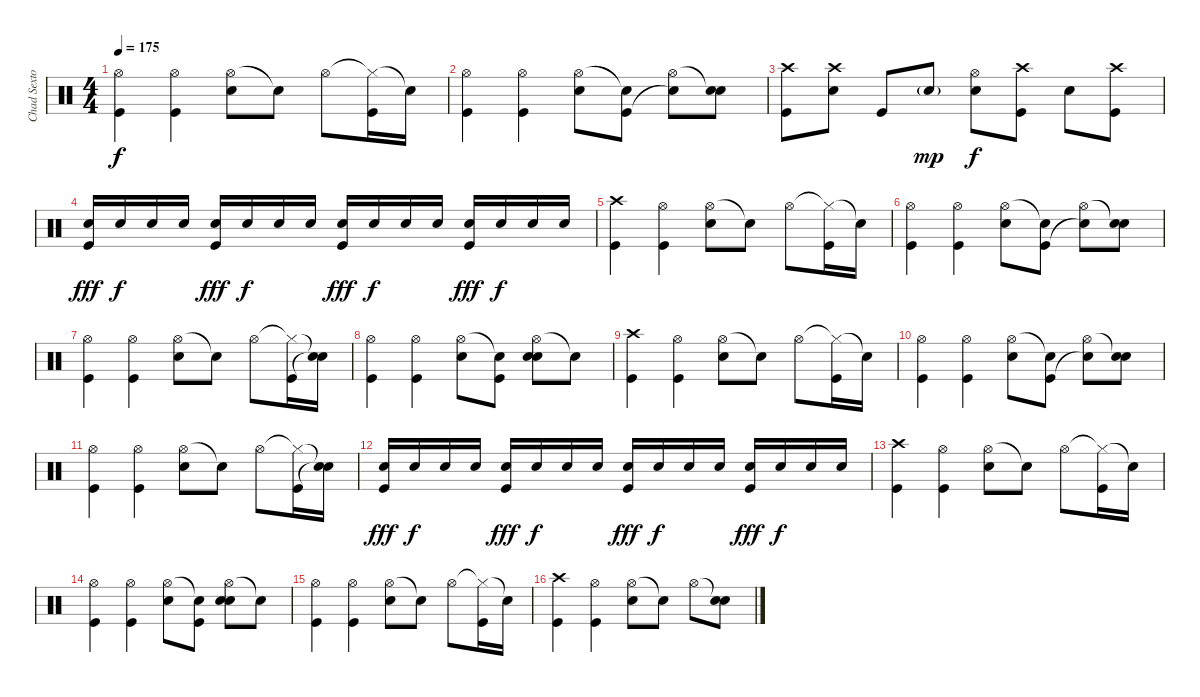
\track ("Chad Sexton" "Chad Sexto") {instrument percussion}
\staff {score}
\articulation defaults
\ts (4 4)
\tempo 175
\clef neutral
\ks c
("Hi-Hat (open)" "Kick (hit)").4{dy f} ("Hi-Hat (open)" "Kick (hit)").4 ("Hi-Hat (open)" "Snare (hit) 2").8 "Snare (hit)"{t}.8 "Hi-Hat (open)".8 ("Hi-Hat (closed)"{t} "Kick (hit)").16 "Snare (hit)"{t}.16 |
("Hi-Hat (open)" "Kick (hit)").4 ("Hi-Hat (open)" "Kick (hit)").4 ("Hi-Hat (open)" "Snare (hit) 2").8 ("Snare (hit)"{t} "Kick (hit)").8 ("Hi-Hat (open)" "Snare (hit)"{t}).8 ("Snare (hit)"{t} "Snare (hit) 2").8 |
("Crash high (hit)" "Kick (hit)").8 ("Crash high (hit)" "Snare (hit) 2").8 "Kick (hit)".8 "Snare (hit) 2"{g}.8{dy mp} ("Hi-Hat (open)" "Snare (hit) 2").8{dy f} ("Crash high (hit)" "Kick (hit)").8 "Snare (hit) 2".8 ("Crash high (hit)" "Kick (hit)").8 |
("Snare (hit) 2" "Kick (hit)").16{dy fff} "Snare (hit) 2".16{dy f} "Snare (hit) 2".16 "Snare (hit) 2".16 ("Snare (hit) 2" "Kick (hit)").16{dy fff} "Snare (hit) 2".16{dy f} "Snare (hit) 2".16 "Snare (hit) 2".16 ("Snare (hit) 2" "Kick (hit)").16{dy fff} "Snare (hit) 2".16{dy f} "Snare (hit) 2".16 "Snare (hit) 2".16 ("Snare (hit) 2" "Kick (hit)").16{dy fff} "Snare (hit) 2".16{dy f} "Snare (hit) 2".16 "Snare (hit) 2".16 |
("Crash high (hit)" "Kick (hit)").4 ("Hi-Hat (open)" "Kick (hit)").4 ("Hi-Hat (open)" "Snare (hit) 2").8 "Snare (hit)"{t}.8 "Hi-Hat (open)".8 ("Hi-Hat (closed)"{t} "Kick (hit)").16 "Snare (hit)"{t}.16 |
("Hi-Hat (open)" "Kick (hit)").4 ("Hi-Hat (open)" "Kick (hit)").4 ("Hi-Hat (open)" "Snare (hit) 2").8 ("Snare (hit)"{t} "Kick (hit)").8 ("Hi-Hat (open)" "Snare (hit)"{t}).8 ("Snare (hit)"{t} "Snare (hit) 2").8 |
("Hi-Hat (open)" "Kick (hit)").4 ("Hi-Hat (open)" "Kick (hit)").4 ("Hi-Hat (open)" "Snare (hit) 2").8 "Snare (hit)"{t}.8 "Hi-Hat (open)".8 ("Hi-Hat (closed)"{t} "Kick (hit)").16 ("Snare (hit)"{t} "Snare (hit)"{t}).16 |
("Hi-Hat (open)" "Kick (hit)").4 ("Hi-Hat (open)" "Kick (hit)").4 ("Hi-Hat (open)" "Snare (hit) 2").8 ("Snare (hit)"{t} "Kick (hit)").8 ("Hi-Hat (open)" "Snare (hit) 2" "Snare (hit)").8 "Snare (hit)"{t}.8 |
("Crash high (hit)" "Kick (hit)").4 ("Hi-Hat (open)" "Kick (hit)").4 ("Hi-Hat (open)" "Snare (hit) 2").8 "Snare (hit)"{t}.8 "Hi-Hat (open)".8 ("Hi-Hat (closed)"{t} "Kick (hit)").16 "Snare (hit)"{t}.16 |
("Hi-Hat (open)" "Kick (hit)").4 ("Hi-Hat (open)" "Kick (hit)").4 ("Hi-Hat (open)" "Snare (hit) 2").8 ("Snare (hit)"{t} "Kick (hit)").8 ("Hi-Hat (open)" "Snare (hit)"{t}).8 ("Snare (hit)"{t} "Snare (hit) 2").8 |
("Hi-Hat (open)" "Kick (hit)").4 ("Hi-Hat (open)" "Kick (hit)").4 ("Hi-Hat (open)" "Snare (hit) 2").8 "Snare (hit)"{t}.8 "Hi-Hat (open)".8 ("Hi-Hat (closed)"{t} "Kick (hit)").16 ("Snare (hit)"{t} "Snare (hit)"{t}).16 |
("Snare (hit) 2" "Kick (hit)").16{dy fff} "Snare (hit) 2".16{dy f} "Snare (hit) 2".16 "Snare (hit) 2".16 ("Snare (hit) 2" "Kick (hit)").16{dy fff} "Snare (hit) 2".16{dy f} "Snare (hit) 2".16 "Snare (hit) 2".16 ("Snare (hit) 2" "Kick (hit)").16{dy fff} "Snare (hit) 2".16{dy f} "Snare (hit) 2".16 "Snare (hit) 2".16 ("Snare (hit) 2" "Kick (hit)").16{dy fff} "Snare (hit) 2".16{dy f} "Snare (hit) 2".16 "Snare (hit) 2".16 |
("Crash high (hit)" "Kick (hit)").4 ("Hi-Hat (open)" "Kick (hit)").4 ("Hi-Hat (open)" "Snare (hit) 2").8 "Snare (hit)"{t}.8 "Hi-Hat (open)".8 ("Hi-Hat (closed)"{t} "Kick (hit)").16 "Snare (hit)"{t}.16 |
("Hi-Hat (open)" "Kick (hit)").4 ("Hi-Hat (open)" "Kick (hit)").4 ("Hi-Hat (open)" "Snare (hit) 2").8 ("Snare (hit)"{t} "Kick (hit)").8 ("Hi-Hat (open)" "Snare (hit) 2" "Snare (hit)").8 "Snare (hit)"{t}.8 |
("Hi-Hat (open)" "Kick (hit)").4 ("Hi-Hat (open)" "Kick (hit)").4 ("Hi-Hat (open)" "Snare (hit) 2").8 "Snare (hit)"{t}.8 "Hi-Hat (open)".8 ("Hi-Hat (closed)"{t} "Kick (hit)").16 "Snare (hit)"{t}.16 |
("Crash high (hit)" "Kick (hit)").4 ("Hi-Hat (open)" "Kick (hit)").4 ("Hi-Hat (open)" "Snare (hit) 2").8 "Snare (hit)"{t}.8 "Hi-Hat (open)".8 ("Snare (hit)"{t} "Snare (hit) 2").8
